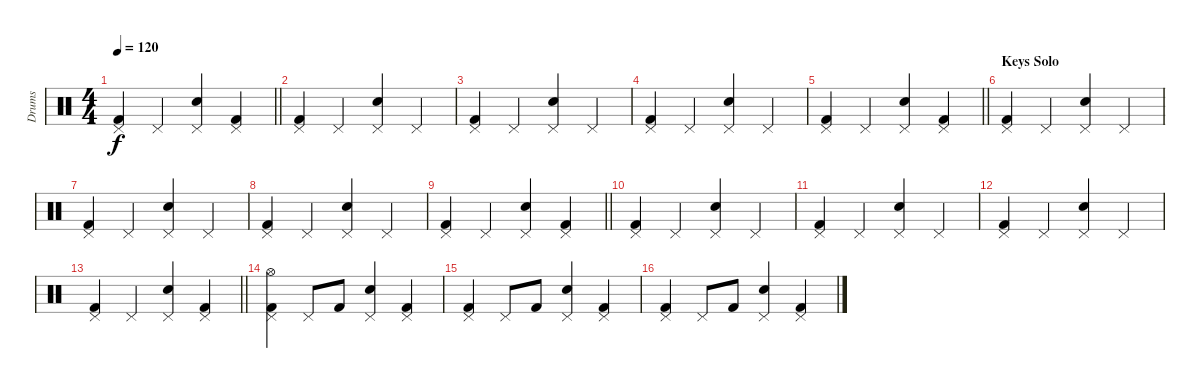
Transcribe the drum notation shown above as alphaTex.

\track ("Drums" "Drums") {instrument percussion}
\staff {score}
\articulation defaults
\ts (4 4)
\tempo 120
\clef neutral
\barLineRight lightlight
\ks c
("Pedal Hi-Hat (hit)" "Kick (hit) 2").4{dy f} "Pedal Hi-Hat (hit)".4 ("Pedal Hi-Hat (hit)" "Electric Snare (hit)").4 ("Pedal Hi-Hat (hit)" "Kick (hit) 2").4 |
("Pedal Hi-Hat (hit)" "Kick (hit) 2").4 "Pedal Hi-Hat (hit)".4 ("Pedal Hi-Hat (hit)" "Electric Snare (hit)").4 "Pedal Hi-Hat (hit)".4 |
("Pedal Hi-Hat (hit)" "Kick (hit) 2").4 "Pedal Hi-Hat (hit)".4 ("Pedal Hi-Hat (hit)" "Electric Snare (hit)").4 "Pedal Hi-Hat (hit)".4 |
("Pedal Hi-Hat (hit)" "Kick (hit) 2").4 "Pedal Hi-Hat (hit)".4 ("Pedal Hi-Hat (hit)" "Electric Snare (hit)").4 "Pedal Hi-Hat (hit)".4 |
\barLineRight lightlight
("Pedal Hi-Hat (hit)" "Kick (hit) 2").4 "Pedal Hi-Hat (hit)".4 ("Pedal Hi-Hat (hit)" "Electric Snare (hit)").4 ("Pedal Hi-Hat (hit)" "Kick (hit) 2").4 |
\section ("" "Keys Solo")
("Pedal Hi-Hat (hit)" "Kick (hit) 2").4 "Pedal Hi-Hat (hit)".4 ("Pedal Hi-Hat (hit)" "Electric Snare (hit)").4 "Pedal Hi-Hat (hit)".4 |
("Pedal Hi-Hat (hit)" "Kick (hit) 2").4 "Pedal Hi-Hat (hit)".4 ("Pedal Hi-Hat (hit)" "Electric Snare (hit)").4 "Pedal Hi-Hat (hit)".4 |
("Pedal Hi-Hat (hit)" "Kick (hit) 2").4 "Pedal Hi-Hat (hit)".4 ("Pedal Hi-Hat (hit)" "Electric Snare (hit)").4 "Pedal Hi-Hat (hit)".4 |
\barLineRight lightlight
("Pedal Hi-Hat (hit)" "Kick (hit) 2").4 "Pedal Hi-Hat (hit)".4 ("Pedal Hi-Hat (hit)" "Electric Snare (hit)").4 ("Pedal Hi-Hat (hit)" "Kick (hit) 2").4 |
("Pedal Hi-Hat (hit)" "Kick (hit) 2").4 "Pedal Hi-Hat (hit)".4 ("Pedal Hi-Hat (hit)" "Electric Snare (hit)").4 "Pedal Hi-Hat (hit)".4 |
("Pedal Hi-Hat (hit)" "Kick (hit) 2").4 "Pedal Hi-Hat (hit)".4 ("Pedal Hi-Hat (hit)" "Electric Snare (hit)").4 "Pedal Hi-Hat (hit)".4 |
("Pedal Hi-Hat (hit)" "Kick (hit) 2").4 "Pedal Hi-Hat (hit)".4 ("Pedal Hi-Hat (hit)" "Electric Snare (hit)").4 "Pedal Hi-Hat (hit)".4 |
\barLineRight lightlight
("Pedal Hi-Hat (hit)" "Kick (hit) 2").4 "Pedal Hi-Hat (hit)".4 ("Pedal Hi-Hat (hit)" "Electric Snare (hit)").4 ("Pedal Hi-Hat (hit)" "Kick (hit) 2").4 |
\section ("" "")
("Hi-Hat (open)" "Pedal Hi-Hat (hit)" "Kick (hit) 2").4 "Pedal Hi-Hat (hit)".8 "Kick (hit) 2".8 ("Pedal Hi-Hat (hit)" "Electric Snare (hit)").4 ("Pedal Hi-Hat (hit)" "Kick (hit) 2").4 |
("Pedal Hi-Hat (hit)" "Kick (hit) 2").4 "Pedal Hi-Hat (hit)".8 "Kick (hit) 2".8 ("Pedal Hi-Hat (hit)" "Electric Snare (hit)").4 ("Pedal Hi-Hat (hit)" "Kick (hit) 2").4 |
("Pedal Hi-Hat (hit)" "Kick (hit) 2").4 "Pedal Hi-Hat (hit)".8 "Kick (hit) 2".8 ("Pedal Hi-Hat (hit)" "Electric Snare (hit)").4 ("Pedal Hi-Hat (hit)" "Kick (hit) 2").4
